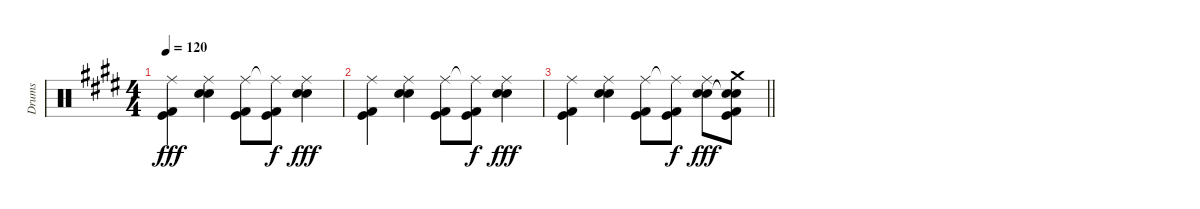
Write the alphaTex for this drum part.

\track ("Drums" "Drums") {instrument percussion}
\staff {score}
\articulation defaults
\ts (4 4)
\tempo 120
\clef neutral
\ks e
("Ride (middle)" "Kick (hit)" "Kick (hit) 2").4{dy fff} ("Ride (middle)" "Electric Snare (hit)" "Snare (hit) 2").4 ("Ride (middle)" "Kick (hit)" "Kick (hit) 2").8 ("Ride (middle)"{t} "Kick (hit)" "Kick (hit) 2").8{dy f} ("Ride (middle)" "Electric Snare (hit)" "Snare (hit) 2").4{dy fff} |
("Ride (middle)" "Kick (hit)" "Kick (hit) 2").4{volume 1} ("Ride (middle)" "Electric Snare (hit)" "Snare (hit) 2").4 ("Ride (middle)" "Kick (hit)" "Kick (hit) 2").8 ("Ride (middle)"{t} "Kick (hit)" "Kick (hit) 2").8{dy f} ("Ride (middle)" "Electric Snare (hit)" "Snare (hit) 2").4{dy fff} |
\barLineRight lightlight
("Ride (middle)" "Kick (hit)" "Kick (hit) 2").4{volume 0} ("Ride (middle)" "Electric Snare (hit)" "Snare (hit) 2").4 ("Ride (middle)" "Kick (hit)" "Kick (hit) 2").8 ("Ride (middle)"{t} "Kick (hit)" "Kick (hit) 2").8{dy f} ("Ride (middle)" "Electric Snare (hit)" "Snare (hit) 2").8{dy fff} ("Crash medium (hit)" "Snare (hit)"{t} "Snare (hit)"{t} "Kick (hit)" "Kick (hit) 2").8
